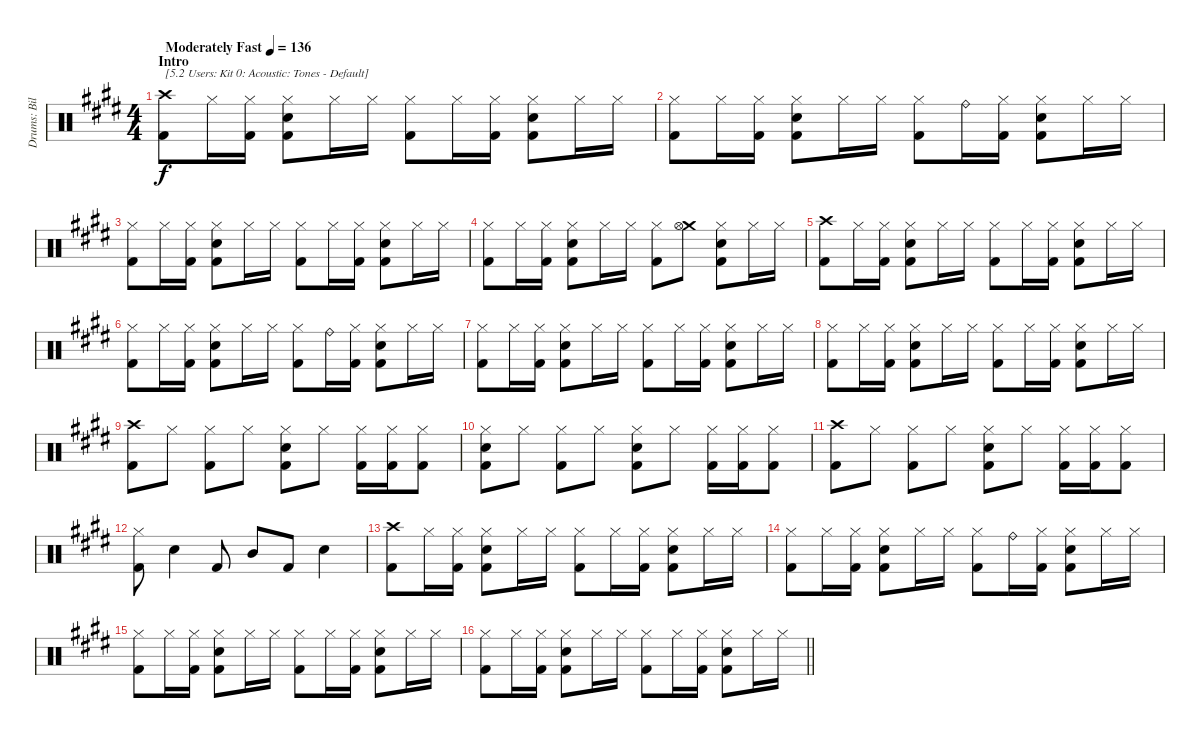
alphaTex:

\track ("Drums: Bill" "Drums: Bil") {instrument percussion}
\staff {score}
\articulation defaults
\ts (4 4)
\section ("" "Intro")
\tempo (136 "Moderately Fast")
\clef neutral
\ks e
("Crash high (hit)" "Kick (hit) 2").8{txt "[5.2 Users: Kit 0: Acoustic: Tones - Default]" dy f} "Hi-Hat (closed)".16 ("Hi-Hat (closed)" "Kick (hit) 2").16 ("Hi-Hat (closed)" "Snare (hit) 2" "Kick (hit) 2").8 "Hi-Hat (closed)".16 "Hi-Hat (closed)".16 ("Hi-Hat (closed)" "Kick (hit) 2").8 "Hi-Hat (closed)".16 ("Hi-Hat (closed)" "Kick (hit) 2").16 ("Hi-Hat (closed)" "Snare (hit) 2" "Kick (hit) 2").8 "Hi-Hat (closed)".16 "Hi-Hat (closed)".16 |
("Hi-Hat (closed)" "Kick (hit) 2").8 "Hi-Hat (closed)".16 ("Hi-Hat (closed)" "Kick (hit) 2").16 ("Hi-Hat (closed)" "Snare (hit) 2" "Kick (hit) 2").8 "Hi-Hat (closed)".16 "Hi-Hat (closed)".16 ("Hi-Hat (closed)" "Kick (hit) 2").8 "Ride (bell)".16 ("Hi-Hat (closed)" "Kick (hit) 2").16 ("Hi-Hat (closed)" "Snare (hit) 2" "Kick (hit) 2").8 "Hi-Hat (closed)".16 "Hi-Hat (closed)".16 |
("Hi-Hat (closed)" "Kick (hit) 2").8 "Hi-Hat (closed)".16 ("Hi-Hat (closed)" "Kick (hit) 2").16 ("Hi-Hat (closed)" "Snare (hit) 2" "Kick (hit) 2").8 "Hi-Hat (closed)".16 "Hi-Hat (closed)".16 ("Hi-Hat (closed)" "Kick (hit) 2").8 "Hi-Hat (closed)".16 ("Hi-Hat (closed)" "Kick (hit) 2").16 ("Hi-Hat (closed)" "Snare (hit) 2" "Kick (hit) 2").8 "Hi-Hat (closed)".16 "Hi-Hat (closed)".16 |
("Hi-Hat (closed)" "Kick (hit) 2").8 "Hi-Hat (closed)".16 ("Hi-Hat (closed)" "Kick (hit) 2").16 ("Hi-Hat (closed)" "Snare (hit) 2" "Kick (hit) 2").8 "Hi-Hat (closed)".16 "Hi-Hat (closed)".16 ("Hi-Hat (closed)" "Kick (hit) 2").8 ("Crash medium (hit)" "Hi-Hat (open)").8 ("Hi-Hat (closed)" "Snare (hit) 2" "Kick (hit) 2").8 "Hi-Hat (closed)".16 "Hi-Hat (closed)".16 |
("Crash high (hit)" "Kick (hit) 2").8 "Hi-Hat (closed)".16 ("Hi-Hat (closed)" "Kick (hit) 2").16 ("Hi-Hat (closed)" "Snare (hit) 2" "Kick (hit) 2").8 "Hi-Hat (closed)".16 "Hi-Hat (closed)".16 ("Hi-Hat (closed)" "Kick (hit) 2").8 "Hi-Hat (closed)".16 ("Hi-Hat (closed)" "Kick (hit) 2").16 ("Hi-Hat (closed)" "Snare (hit) 2" "Kick (hit) 2").8 "Hi-Hat (closed)".16 "Hi-Hat (closed)".16 |
("Hi-Hat (closed)" "Kick (hit) 2").8 "Hi-Hat (closed)".16 ("Hi-Hat (closed)" "Kick (hit) 2").16 ("Hi-Hat (closed)" "Snare (hit) 2" "Kick (hit) 2").8 "Hi-Hat (closed)".16 "Hi-Hat (closed)".16 ("Hi-Hat (closed)" "Kick (hit) 2").8 "Ride (bell)".16 ("Hi-Hat (closed)" "Kick (hit) 2").16 ("Hi-Hat (closed)" "Snare (hit) 2" "Kick (hit) 2").8 "Hi-Hat (closed)".16 "Hi-Hat (closed)".16 |
("Hi-Hat (closed)" "Kick (hit) 2").8 "Hi-Hat (closed)".16 ("Hi-Hat (closed)" "Kick (hit) 2").16 ("Hi-Hat (closed)" "Snare (hit) 2" "Kick (hit) 2").8 "Hi-Hat (closed)".16 "Hi-Hat (closed)".16 ("Hi-Hat (closed)" "Kick (hit) 2").8 "Hi-Hat (closed)".16 ("Hi-Hat (closed)" "Kick (hit) 2").16 ("Hi-Hat (closed)" "Snare (hit) 2" "Kick (hit) 2").8 "Hi-Hat (closed)".16 "Hi-Hat (closed)".16 |
("Hi-Hat (closed)" "Kick (hit) 2").8 "Hi-Hat (closed)".16 ("Hi-Hat (closed)" "Kick (hit) 2").16 ("Hi-Hat (closed)" "Snare (hit) 2" "Kick (hit) 2").8 "Hi-Hat (closed)".16 "Hi-Hat (closed)".16 ("Hi-Hat (closed)" "Kick (hit) 2").8 "Hi-Hat (closed)".16 ("Hi-Hat (closed)" "Kick (hit) 2").16 ("Hi-Hat (closed)" "Snare (hit) 2" "Kick (hit) 2").8 "Hi-Hat (closed)".16 "Hi-Hat (closed)".16 |
("Crash high (hit)" "Kick (hit) 2").8 "Hi-Hat (closed)".8 ("Hi-Hat (closed)" "Kick (hit) 2").8 "Hi-Hat (closed)".8 ("Hi-Hat (closed)" "Snare (hit) 2" "Kick (hit) 2").8 "Hi-Hat (closed)".8 ("Hi-Hat (closed)" "Kick (hit) 2").16 ("Hi-Hat (closed)" "Kick (hit) 2").16 ("Hi-Hat (closed)" "Kick (hit) 2").8 |
("Hi-Hat (closed)" "Snare (hit) 2" "Kick (hit) 2").8 "Hi-Hat (closed)".8 ("Hi-Hat (closed)" "Kick (hit) 2").8 "Hi-Hat (closed)".8 ("Hi-Hat (closed)" "Snare (hit) 2" "Kick (hit) 2").8 "Hi-Hat (closed)".8 ("Hi-Hat (closed)" "Kick (hit) 2").16 ("Hi-Hat (closed)" "Kick (hit) 2").16 ("Hi-Hat (closed)" "Kick (hit) 2").8 |
("Crash high (hit)" "Kick (hit) 2").8 "Hi-Hat (closed)".8 ("Hi-Hat (closed)" "Kick (hit) 2").8 "Hi-Hat (closed)".8 ("Hi-Hat (closed)" "Snare (hit) 2" "Kick (hit) 2").8 "Hi-Hat (closed)".8 ("Hi-Hat (closed)" "Kick (hit) 2").16 ("Hi-Hat (closed)" "Kick (hit) 2").16 ("Hi-Hat (closed)" "Kick (hit) 2").8 |
("Hi-Hat (closed)" "Kick (hit) 2").8 "Electric Snare (hit)".4 "Kick (hit) 2".8 "Mid Tom (hit)".8 "Kick (hit) 2".8 "Electric Snare (hit)".4 |
("Crash high (hit)" "Kick (hit) 2").8 "Hi-Hat (closed)".16 ("Hi-Hat (closed)" "Kick (hit) 2").16 ("Hi-Hat (closed)" "Snare (hit) 2" "Kick (hit) 2").8 "Hi-Hat (closed)".16 "Hi-Hat (closed)".16 ("Hi-Hat (closed)" "Kick (hit) 2").8 "Hi-Hat (closed)".16 ("Hi-Hat (closed)" "Kick (hit) 2").16 ("Hi-Hat (closed)" "Snare (hit) 2" "Kick (hit) 2").8 "Hi-Hat (closed)".16 "Hi-Hat (closed)".16 |
("Hi-Hat (closed)" "Kick (hit) 2").8 "Hi-Hat (closed)".16 ("Hi-Hat (closed)" "Kick (hit) 2").16 ("Hi-Hat (closed)" "Snare (hit) 2" "Kick (hit) 2").8 "Hi-Hat (closed)".16 "Hi-Hat (closed)".16 ("Hi-Hat (closed)" "Kick (hit) 2").8 "Ride (bell)".16 ("Hi-Hat (closed)" "Kick (hit) 2").16 ("Hi-Hat (closed)" "Snare (hit) 2" "Kick (hit) 2").8 "Hi-Hat (closed)".16 "Hi-Hat (closed)".16 |
("Hi-Hat (closed)" "Kick (hit) 2").8 "Hi-Hat (closed)".16 ("Hi-Hat (closed)" "Kick (hit) 2").16 ("Hi-Hat (closed)" "Snare (hit) 2" "Kick (hit) 2").8 "Hi-Hat (closed)".16 "Hi-Hat (closed)".16 ("Hi-Hat (closed)" "Kick (hit) 2").8 "Hi-Hat (closed)".16 ("Hi-Hat (closed)" "Kick (hit) 2").16 ("Hi-Hat (closed)" "Snare (hit) 2" "Kick (hit) 2").8 "Hi-Hat (closed)".16 "Hi-Hat (closed)".16 |
\barLineRight lightlight
("Hi-Hat (closed)" "Kick (hit) 2").8 "Hi-Hat (closed)".16 ("Hi-Hat (closed)" "Kick (hit) 2").16 ("Hi-Hat (closed)" "Snare (hit) 2" "Kick (hit) 2").8 "Hi-Hat (closed)".16 "Hi-Hat (closed)".16 ("Hi-Hat (closed)" "Kick (hit) 2").8 "Hi-Hat (closed)".16 ("Hi-Hat (closed)" "Kick (hit) 2").16 ("Hi-Hat (closed)" "Snare (hit) 2" "Kick (hit) 2").8 "Hi-Hat (closed)".16 "Hi-Hat (closed)".16
